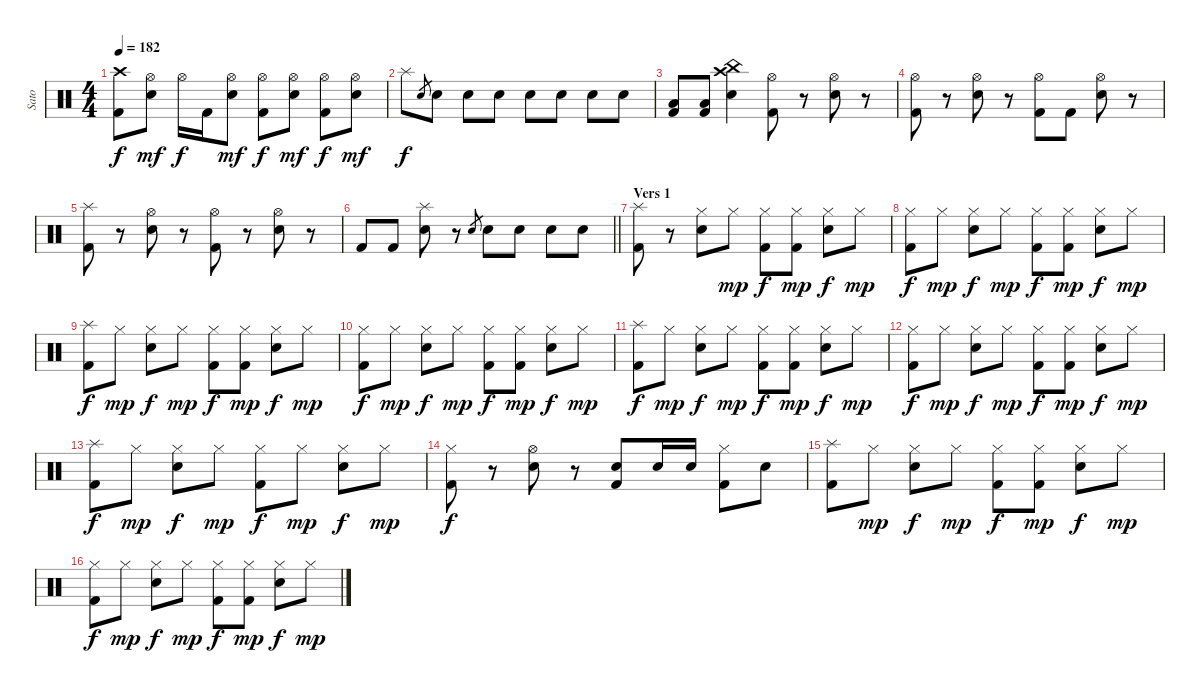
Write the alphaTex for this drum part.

\track ("Sato" "Sato") {instrument percussion}
\staff {score}
\articulation defaults
\ts (4 4)
\tempo 182
\clef neutral
\ks c
("Crash high (hit)" "Kick (hit) 2").8{dy f} ("Hi-Hat (open)" "Electric Snare (hit)").8{dy mf} "Hi-Hat (open)".16{dy f} "Kick (hit) 2".16 ("Hi-Hat (open)" "Electric Snare (hit)").8{dy mf} ("Hi-Hat (open)" "Kick (hit) 2").8{dy f} ("Hi-Hat (open)" "Electric Snare (hit)").8{dy mf} ("Hi-Hat (open)" "Kick (hit) 2").8{dy f} ("Hi-Hat (open)" "Electric Snare (hit)").8{dy mf} |
"Splash (hit)".8{dy f} "Electric Snare (hit)".8{gr} "Electric Snare (hit)".8 "Electric Snare (hit)".8 "Electric Snare (hit)".8 "Electric Snare (hit)".8 "Electric Snare (hit)".8 "Electric Snare (hit)".8 "Electric Snare (hit)".8 |
("Low Floor Tom (hit)" "Kick (hit) 2").8 ("Low Floor Tom (hit)" "Kick (hit) 2").8 ("Crash high (hit)" "China (hit)" "Electric Snare (hit)").4 ("Hi-Hat (open)" "Kick (hit) 2").8 r.8 ("Hi-Hat (open)" "Electric Snare (hit)").8 r.8 |
("Hi-Hat (open)" "Kick (hit) 2").8 r.8 ("Hi-Hat (open)" "Electric Snare (hit)").8 r.8 ("Hi-Hat (open)" "Kick (hit) 2").8 "Kick (hit) 2".8 ("Hi-Hat (open)" "Electric Snare (hit)").8 r.8 |
("Splash (hit)" "Kick (hit) 2").8 r.8 ("Hi-Hat (open)" "Electric Snare (hit)").8 r.8 ("Hi-Hat (open)" "Kick (hit) 2").8 r.8 ("Hi-Hat (open)" "Electric Snare (hit)").8 r.8 |
\barLineRight lightlight "Kick (hit) 2".8 "Kick (hit) 2".8
("Splash (hit)" "Electric Snare (hit)").8 r.8 "Electric Snare (hit)".8{gr} "Electric Snare (hit)".8 "Electric Snare (hit)".8 "Electric Snare (hit)".8 "Electric Snare (hit)".8 |
\section ("" "Vers 1")
("Splash (hit)" "Kick (hit) 2").8 r.8 ("Hi-Hat (closed)" "Electric Snare (hit)").8 "Hi-Hat (closed)".8{dy mp} ("Hi-Hat (closed)" "Kick (hit) 2").8{dy f} ("Hi-Hat (closed)" "Kick (hit) 2").8{dy mp} ("Hi-Hat (closed)" "Electric Snare (hit)").8{dy f} "Hi-Hat (closed)".8{dy mp} |
("Hi-Hat (closed)" "Kick (hit) 2").8{dy f} "Hi-Hat (closed)".8{dy mp} ("Hi-Hat (closed)" "Electric Snare (hit)").8{dy f} "Hi-Hat (closed)".8{dy mp} ("Hi-Hat (closed)" "Kick (hit) 2").8{dy f} ("Hi-Hat (closed)" "Kick (hit) 2").8{dy mp} ("Hi-Hat (closed)" "Electric Snare (hit)").8{dy f} "Hi-Hat (closed)".8{dy mp} |
("Splash (hit)" "Kick (hit) 2").8{dy f} "Hi-Hat (closed)".8{dy mp} ("Hi-Hat (closed)" "Electric Snare (hit)").8{dy f} "Hi-Hat (closed)".8{dy mp} ("Hi-Hat (closed)" "Kick (hit) 2").8{dy f} ("Hi-Hat (closed)" "Kick (hit) 2").8{dy mp} ("Hi-Hat (closed)" "Electric Snare (hit)").8{dy f} "Hi-Hat (closed)".8{dy mp} |
("Hi-Hat (closed)" "Kick (hit) 2").8{dy f} "Hi-Hat (closed)".8{dy mp} ("Hi-Hat (closed)" "Electric Snare (hit)").8{dy f} "Hi-Hat (closed)".8{dy mp} ("Hi-Hat (closed)" "Kick (hit) 2").8{dy f} ("Hi-Hat (closed)" "Kick (hit) 2").8{dy mp} ("Hi-Hat (closed)" "Electric Snare (hit)").8{dy f} "Hi-Hat (closed)".8{dy mp} |
("Splash (hit)" "Kick (hit) 2").8{dy f} "Hi-Hat (closed)".8{dy mp} ("Hi-Hat (closed)" "Electric Snare (hit)").8{dy f} "Hi-Hat (closed)".8{dy mp} ("Hi-Hat (closed)" "Kick (hit) 2").8{dy f} ("Hi-Hat (closed)" "Kick (hit) 2").8{dy mp} ("Hi-Hat (closed)" "Electric Snare (hit)").8{dy f} "Hi-Hat (closed)".8{dy mp} |
("Hi-Hat (closed)" "Kick (hit) 2").8{dy f} "Hi-Hat (closed)".8{dy mp} ("Hi-Hat (closed)" "Electric Snare (hit)").8{dy f} "Hi-Hat (closed)".8{dy mp} ("Hi-Hat (closed)" "Kick (hit) 2").8{dy f} ("Hi-Hat (closed)" "Kick (hit) 2").8{dy mp} ("Hi-Hat (closed)" "Electric Snare (hit)").8{dy f} "Hi-Hat (closed)".8{dy mp} |
("Splash (hit)" "Kick (hit) 2").8{dy f} "Hi-Hat (closed)".8{dy mp} ("Hi-Hat (closed)" "Electric Snare (hit)").8{dy f} "Hi-Hat (closed)".8{dy mp} ("Hi-Hat (closed)" "Kick (hit) 2").8{dy f} "Hi-Hat (closed)".8{dy mp} ("Hi-Hat (closed)" "Electric Snare (hit)").8{dy f} "Hi-Hat (closed)".8{dy mp} |
("Hi-Hat (closed)" "Kick (hit) 2").8{dy f} r.8 ("Hi-Hat (open)" "Electric Snare (hit)").8 r.8 ("Electric Snare (hit)" "Kick (hit) 2").8 "Electric Snare (hit)".16 "Electric Snare (hit)".16 ("Hi-Hat (closed)" "Kick (hit) 2").8 "Electric Snare (hit)".8 |
("Splash (hit)" "Kick (hit) 2").8 "Hi-Hat (closed)".8{dy mp} ("Hi-Hat (closed)" "Electric Snare (hit)").8{dy f} "Hi-Hat (closed)".8{dy mp} ("Hi-Hat (closed)" "Kick (hit) 2").8{dy f} ("Hi-Hat (closed)" "Kick (hit) 2").8{dy mp} ("Hi-Hat (closed)" "Electric Snare (hit)").8{dy f} "Hi-Hat (closed)".8{dy mp} |
("Hi-Hat (closed)" "Kick (hit) 2").8{dy f} "Hi-Hat (closed)".8{dy mp} ("Hi-Hat (closed)" "Electric Snare (hit)").8{dy f} "Hi-Hat (closed)".8{dy mp} ("Hi-Hat (closed)" "Kick (hit) 2").8{dy f} ("Hi-Hat (closed)" "Kick (hit) 2").8{dy mp} ("Hi-Hat (closed)" "Electric Snare (hit)").8{dy f} "Hi-Hat (closed)".8{dy mp}
